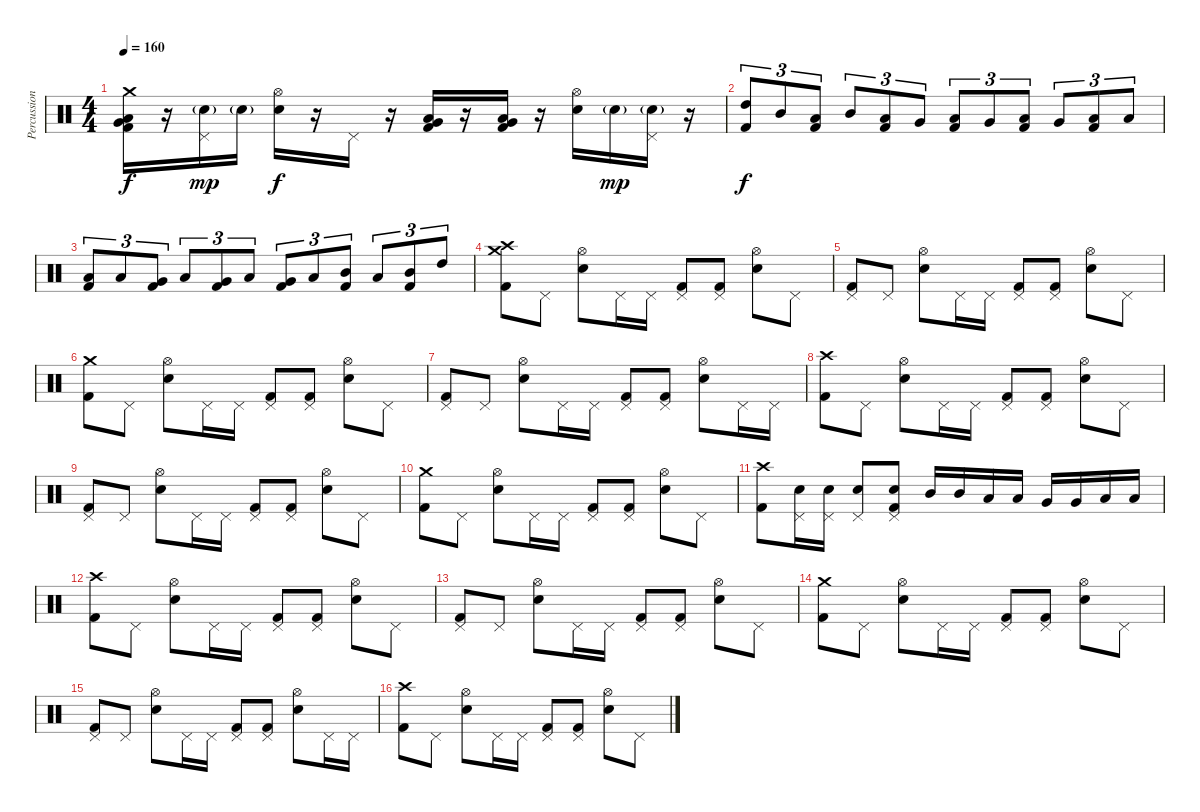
\track ("Percussion" "Percussion") {instrument percussion}
\staff {score}
\articulation defaults
\ts (4 4)
\tempo 160
\clef neutral
\ks c
("Crash medium (hit)" "Low Tom (hit)" "Very Low Tom (hit)" "Kick (hit) 2").16{dy f} r.16 ("Pedal Hi-Hat (hit)" "Electric Snare (hit)"{g}).16{dy mp} "Electric Snare (hit)"{g}.16 ("Hi-Hat (open)" "Electric Snare (hit)").16{dy f} r.16 "Pedal Hi-Hat (hit)".16 r.16 ("Very Low Tom (hit)" "Low Floor Tom (hit)" "Kick (hit) 2").16 r.16 ("Very Low Tom (hit)" "Low Floor Tom (hit)" "Kick (hit) 2").16 r.16 ("Hi-Hat (open)" "Electric Snare (hit)").16 "Electric Snare (hit)"{g}.16{dy mp} ("Pedal Hi-Hat (hit)" "Electric Snare (hit)"{g}).16 r.16 |
("High Tom (hit)" "Kick (hit) 2").8{tu (3 2) dy f} "Mid Tom (hit)".8{tu (3 2)} ("Low Tom (hit)" "Kick (hit) 2").8{tu (3 2)} "Mid Tom (hit)".8{tu (3 2)} ("Low Tom (hit)" "Kick (hit) 2").8{tu (3 2)} "Very Low Tom (hit)".8{tu (3 2)} ("Low Tom (hit)" "Kick (hit) 2").8{tu (3 2)} "Very Low Tom (hit)".8{tu (3 2)} ("Low Floor Tom (hit)" "Kick (hit) 2").8{tu (3 2)} "Very Low Tom (hit)".8{tu (3 2)} ("Low Floor Tom (hit)" "Kick (hit) 2").8{tu (3 2)} "Low Floor Tom (hit)".8{tu (3 2)} |
("Low Floor Tom (hit)" "Kick (hit) 2").8{tu (3 2)} "Low Floor Tom (hit)".8{tu (3 2)} ("Very Low Tom (hit)" "Kick (hit) 2").8{tu (3 2)} "Low Floor Tom (hit)".8{tu (3 2)} ("Very Low Tom (hit)" "Kick (hit) 2").8{tu (3 2)} "Low Tom (hit)".8{tu (3 2)} ("Very Low Tom (hit)" "Kick (hit) 2").8{tu (3 2)} "Low Tom (hit)".8{tu (3 2)} ("Mid Tom (hit)" "Kick (hit) 2").8{tu (3 2)} "Low Tom (hit)".8{tu (3 2)} ("Mid Tom (hit)" "Kick (hit) 2").8{tu (3 2)} "High Tom (hit)".8{tu (3 2)} |
("Crash high (hit)" "Crash medium (hit)" "Kick (hit) 2").8 "Pedal Hi-Hat (hit)".8 ("Hi-Hat (open)" "Electric Snare (hit)").8 "Pedal Hi-Hat (hit)".16 "Pedal Hi-Hat (hit)".16 ("Pedal Hi-Hat (hit)" "Kick (hit) 2").8 ("Pedal Hi-Hat (hit)" "Kick (hit) 2").8 ("Hi-Hat (open)" "Electric Snare (hit)").8 "Pedal Hi-Hat (hit)".8 |
("Pedal Hi-Hat (hit)" "Kick (hit) 2").8 "Pedal Hi-Hat (hit)".8 ("Hi-Hat (open)" "Electric Snare (hit)").8 "Pedal Hi-Hat (hit)".16 "Pedal Hi-Hat (hit)".16 ("Pedal Hi-Hat (hit)" "Kick (hit) 2").8 ("Pedal Hi-Hat (hit)" "Kick (hit) 2").8 ("Hi-Hat (open)" "Electric Snare (hit)").8 "Pedal Hi-Hat (hit)".8 |
("Crash medium (hit)" "Kick (hit) 2").8 "Pedal Hi-Hat (hit)".8 ("Hi-Hat (open)" "Electric Snare (hit)").8 "Pedal Hi-Hat (hit)".16 "Pedal Hi-Hat (hit)".16 ("Pedal Hi-Hat (hit)" "Kick (hit) 2").8 ("Pedal Hi-Hat (hit)" "Kick (hit) 2").8 ("Hi-Hat (open)" "Electric Snare (hit)").8 "Pedal Hi-Hat (hit)".8 |
("Pedal Hi-Hat (hit)" "Kick (hit) 2").8 "Pedal Hi-Hat (hit)".8 ("Hi-Hat (open)" "Electric Snare (hit)").8 "Pedal Hi-Hat (hit)".16 "Pedal Hi-Hat (hit)".16 ("Pedal Hi-Hat (hit)" "Kick (hit) 2").8 ("Pedal Hi-Hat (hit)" "Kick (hit) 2").8 ("Hi-Hat (open)" "Electric Snare (hit)").8 "Pedal Hi-Hat (hit)".16 "Pedal Hi-Hat (hit)".16 |
("Crash high (hit)" "Kick (hit) 2").8 "Pedal Hi-Hat (hit)".8 ("Hi-Hat (open)" "Electric Snare (hit)").8 "Pedal Hi-Hat (hit)".16 "Pedal Hi-Hat (hit)".16 ("Pedal Hi-Hat (hit)" "Kick (hit) 2").8 ("Pedal Hi-Hat (hit)" "Kick (hit) 2").8 ("Hi-Hat (open)" "Electric Snare (hit)").8 "Pedal Hi-Hat (hit)".8 |
("Pedal Hi-Hat (hit)" "Kick (hit) 2").8 "Pedal Hi-Hat (hit)".8 ("Hi-Hat (open)" "Electric Snare (hit)").8 "Pedal Hi-Hat (hit)".16 "Pedal Hi-Hat (hit)".16 ("Pedal Hi-Hat (hit)" "Kick (hit) 2").8 ("Pedal Hi-Hat (hit)" "Kick (hit) 2").8 ("Hi-Hat (open)" "Electric Snare (hit)").8 "Pedal Hi-Hat (hit)".8 |
("Crash medium (hit)" "Kick (hit) 2").8 "Pedal Hi-Hat (hit)".8 ("Hi-Hat (open)" "Electric Snare (hit)").8 "Pedal Hi-Hat (hit)".16 "Pedal Hi-Hat (hit)".16 ("Pedal Hi-Hat (hit)" "Kick (hit) 2").8 ("Pedal Hi-Hat (hit)" "Kick (hit) 2").8 ("Hi-Hat (open)" "Electric Snare (hit)").8 "Pedal Hi-Hat (hit)".8 |
("Crash high (hit)" "Kick (hit) 2").8 ("Pedal Hi-Hat (hit)" "Electric Snare (hit)").16 ("Pedal Hi-Hat (hit)" "Electric Snare (hit)").16 ("Pedal Hi-Hat (hit)" "Electric Snare (hit)").8 ("Pedal Hi-Hat (hit)" "Electric Snare (hit)" "Kick (hit) 2").8 "Mid Tom (hit)".16 "Mid Tom (hit)".16 "Low Tom (hit)".16 "Low Tom (hit)".16 "Very Low Tom (hit)".16 "Very Low Tom (hit)".16 "Low Floor Tom (hit)".16 "Low Floor Tom (hit)".16 |
("Crash high (hit)" "Kick (hit) 2").8 "Pedal Hi-Hat (hit)".8 ("Hi-Hat (open)" "Electric Snare (hit)").8 "Pedal Hi-Hat (hit)".16 "Pedal Hi-Hat (hit)".16 ("Pedal Hi-Hat (hit)" "Kick (hit) 2").8 ("Pedal Hi-Hat (hit)" "Kick (hit) 2").8 ("Hi-Hat (open)" "Electric Snare (hit)").8 "Pedal Hi-Hat (hit)".8 |
("Pedal Hi-Hat (hit)" "Kick (hit) 2").8 "Pedal Hi-Hat (hit)".8 ("Hi-Hat (open)" "Electric Snare (hit)").8 "Pedal Hi-Hat (hit)".16 "Pedal Hi-Hat (hit)".16 ("Pedal Hi-Hat (hit)" "Kick (hit) 2").8 ("Pedal Hi-Hat (hit)" "Kick (hit) 2").8 ("Hi-Hat (open)" "Electric Snare (hit)").8 "Pedal Hi-Hat (hit)".8 |
("Crash medium (hit)" "Kick (hit) 2").8 "Pedal Hi-Hat (hit)".8 ("Hi-Hat (open)" "Electric Snare (hit)").8 "Pedal Hi-Hat (hit)".16 "Pedal Hi-Hat (hit)".16 ("Pedal Hi-Hat (hit)" "Kick (hit) 2").8 ("Pedal Hi-Hat (hit)" "Kick (hit) 2").8 ("Hi-Hat (open)" "Electric Snare (hit)").8 "Pedal Hi-Hat (hit)".8 |
("Pedal Hi-Hat (hit)" "Kick (hit) 2").8 "Pedal Hi-Hat (hit)".8 ("Hi-Hat (open)" "Electric Snare (hit)").8 "Pedal Hi-Hat (hit)".16 "Pedal Hi-Hat (hit)".16 ("Pedal Hi-Hat (hit)" "Kick (hit) 2").8 ("Pedal Hi-Hat (hit)" "Kick (hit) 2").8 ("Hi-Hat (open)" "Electric Snare (hit)").8 "Pedal Hi-Hat (hit)".16 "Pedal Hi-Hat (hit)".16 |
("Crash high (hit)" "Kick (hit) 2").8 "Pedal Hi-Hat (hit)".8 ("Hi-Hat (open)" "Electric Snare (hit)").8 "Pedal Hi-Hat (hit)".16 "Pedal Hi-Hat (hit)".16 ("Pedal Hi-Hat (hit)" "Kick (hit) 2").8 ("Pedal Hi-Hat (hit)" "Kick (hit) 2").8 ("Hi-Hat (open)" "Electric Snare (hit)").8 "Pedal Hi-Hat (hit)".8
